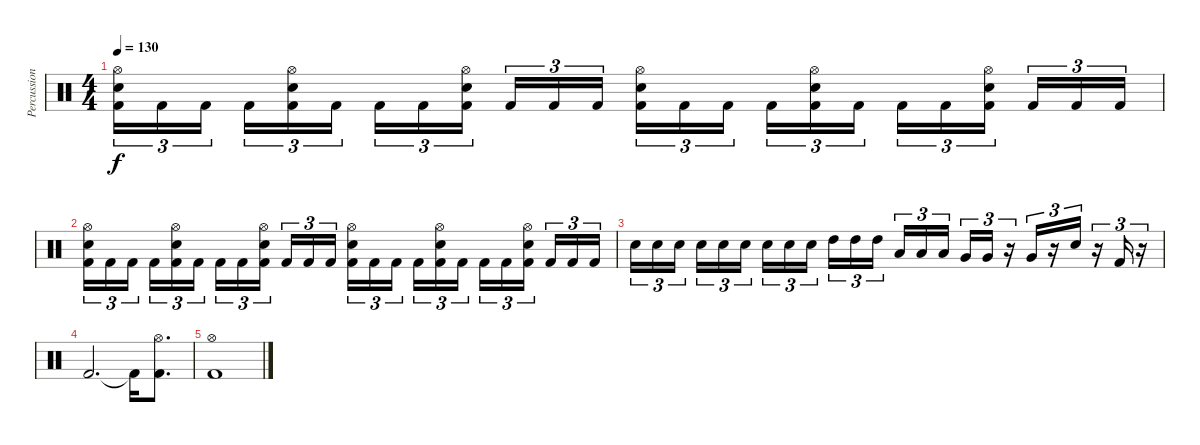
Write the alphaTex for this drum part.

\track ("Percussion" "Percussion") {instrument percussion}
\staff {score}
\articulation defaults
\ts (4 4)
\tempo 130
\clef neutral
\ks c
("Kick (hit) 2" "Snare (hit) 2" "Hi-Hat (open)").16{tu (3 2) dy f} "Kick (hit) 2".16{tu (3 2)} "Kick (hit) 2".16{tu (3 2) beam splitsecondary} "Kick (hit) 2".16{tu (3 2)} ("Kick (hit) 2" "Snare (hit) 2" "Hi-Hat (open)").16{tu (3 2)} "Kick (hit) 2".16{tu (3 2)} "Kick (hit) 2".16{tu (3 2)} "Kick (hit) 2".16{tu (3 2)} ("Kick (hit) 2" "Snare (hit) 2" "Hi-Hat (open)").16{tu (3 2) beam splitsecondary} "Kick (hit) 2".16{tu (3 2)} "Kick (hit) 2".16{tu (3 2)} "Kick (hit) 2".16{tu (3 2)} ("Kick (hit) 2" "Snare (hit) 2" "Hi-Hat (open)").16{tu (3 2)} "Kick (hit) 2".16{tu (3 2)} "Kick (hit) 2".16{tu (3 2) beam splitsecondary} "Kick (hit) 2".16{tu (3 2)} ("Kick (hit) 2" "Snare (hit) 2" "Hi-Hat (open)").16{tu (3 2)} "Kick (hit) 2".16{tu (3 2)} "Kick (hit) 2".16{tu (3 2)} "Kick (hit) 2".16{tu (3 2)} ("Kick (hit) 2" "Snare (hit) 2" "Hi-Hat (open)").16{tu (3 2) beam splitsecondary} "Kick (hit) 2".16{tu (3 2)} "Kick (hit) 2".16{tu (3 2)} "Kick (hit) 2".16{tu (3 2)} |
("Kick (hit) 2" "Snare (hit) 2" "Hi-Hat (open)").16{tu (3 2)} "Kick (hit) 2".16{tu (3 2)} "Kick (hit) 2".16{tu (3 2) beam splitsecondary} "Kick (hit) 2".16{tu (3 2)} ("Kick (hit) 2" "Snare (hit) 2" "Hi-Hat (open)").16{tu (3 2)} "Kick (hit) 2".16{tu (3 2)} "Kick (hit) 2".16{tu (3 2)} "Kick (hit) 2".16{tu (3 2)} ("Kick (hit) 2" "Snare (hit) 2" "Hi-Hat (open)").16{tu (3 2) beam splitsecondary} "Kick (hit) 2".16{tu (3 2)} "Kick (hit) 2".16{tu (3 2)} "Kick (hit) 2".16{tu (3 2)} ("Kick (hit) 2" "Snare (hit) 2" "Hi-Hat (open)").16{tu (3 2)} "Kick (hit) 2".16{tu (3 2)} "Kick (hit) 2".16{tu (3 2) beam splitsecondary} "Kick (hit) 2".16{tu (3 2)} ("Kick (hit) 2" "Snare (hit) 2" "Hi-Hat (open)").16{tu (3 2)} "Kick (hit) 2".16{tu (3 2)} "Kick (hit) 2".16{tu (3 2)} "Kick (hit) 2".16{tu (3 2)} ("Kick (hit) 2" "Snare (hit) 2" "Hi-Hat (open)").16{tu (3 2) beam splitsecondary} "Kick (hit) 2".16{tu (3 2)} "Kick (hit) 2".16{tu (3 2)} "Kick (hit) 2".16{tu (3 2)} |
"Snare (hit) 2".16{tu (3 2)} "Snare (hit) 2".16{tu (3 2)} "Snare (hit) 2".16{tu (3 2) beam splitsecondary} "Snare (hit) 2".16{tu (3 2)} "Snare (hit) 2".16{tu (3 2)} "Snare (hit) 2".16{tu (3 2)} "Snare (hit) 2".16{tu (3 2)} "Snare (hit) 2".16{tu (3 2)} "Snare (hit) 2".16{tu (3 2) beam splitsecondary} "High Tom (hit)".16{tu (3 2)} "High Tom (hit)".16{tu (3 2)} "High Tom (hit)".16{tu (3 2)} "Low Tom (hit)".16{tu (3 2)} "Low Tom (hit)".16{tu (3 2)} "Low Tom (hit)".16{tu (3 2) beam splitsecondary} "Very Low Tom (hit)".16{tu (3 2)} "Very Low Tom (hit)".16{tu (3 2)} r.16{tu (3 2)} "Very Low Tom (hit)".16{tu (3 2)} r.16{tu (3 2)} "Snare (hit) 2".16{tu (3 2)} r.16{tu (3 2)} "Kick (hit) 2".16{tu (3 2)} r.16{tu (3 2)} |
"Kick (hit) 2".2{d} "Kick (hit) 2"{t}.16 ("Kick (hit) 2" "Hi-Hat (open)").8{d} |
("Kick (hit) 2" "Hi-Hat (open)").1
